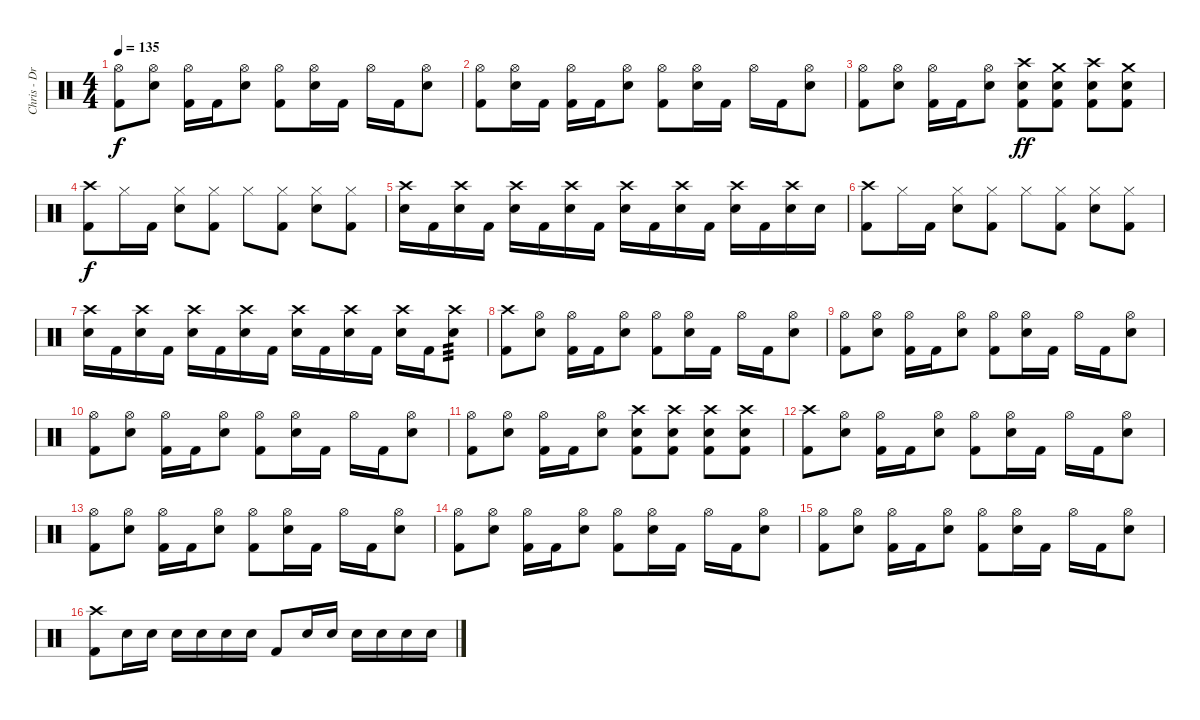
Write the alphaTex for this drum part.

\track ("Chris - Drums" "Chris - Dr") {instrument percussion}
\staff {score}
\articulation defaults
\ts (4 4)
\tempo 135
\clef neutral
\ks c
("Hi-Hat (open)" "Kick (hit) 2").8{dy f} ("Hi-Hat (open)" "Electric Snare (hit)").8 ("Hi-Hat (open)" "Kick (hit) 2").16 "Kick (hit) 2".16 ("Hi-Hat (open)" "Electric Snare (hit)").8 ("Hi-Hat (open)" "Kick (hit) 2").8 ("Hi-Hat (open)" "Electric Snare (hit)").16 "Kick (hit) 2".16 "Hi-Hat (open)".16 "Kick (hit) 2".16 ("Hi-Hat (open)" "Electric Snare (hit)").8 |
("Hi-Hat (open)" "Kick (hit) 2").8 ("Hi-Hat (open)" "Electric Snare (hit)").16 "Kick (hit) 2".16 ("Hi-Hat (open)" "Kick (hit) 2").16 "Kick (hit) 2".16 ("Hi-Hat (open)" "Electric Snare (hit)").8 ("Hi-Hat (open)" "Kick (hit) 2").8 ("Hi-Hat (open)" "Electric Snare (hit)").16 "Kick (hit) 2".16 "Hi-Hat (open)".16 "Kick (hit) 2".16 ("Hi-Hat (open)" "Electric Snare (hit)").8 |
("Hi-Hat (open)" "Kick (hit) 2").8 ("Hi-Hat (open)" "Electric Snare (hit)").8 ("Hi-Hat (open)" "Kick (hit) 2").16 "Kick (hit) 2".16 ("Hi-Hat (open)" "Electric Snare (hit)").8 ("Crash high (hit)" "Electric Snare (hit)" "Kick (hit) 2").8{dy ff} ("Crash medium (hit)" "Electric Snare (hit)" "Kick (hit) 2").8 ("Crash high (hit)" "Electric Snare (hit)" "Kick (hit) 2").8 ("Crash medium (hit)" "Electric Snare (hit)" "Kick (hit) 2").8 |
("Crash high (hit)" "Kick (hit) 2").8{dy f} "Hi-Hat (closed)".16 "Kick (hit) 2".16 ("Hi-Hat (closed)" "Electric Snare (hit)").8 ("Hi-Hat (closed)" "Kick (hit) 2").8 "Hi-Hat (closed)".8 ("Hi-Hat (closed)" "Kick (hit) 2").8 ("Hi-Hat (closed)" "Electric Snare (hit)").8 ("Hi-Hat (closed)" "Kick (hit) 2").8 |
("Crash high (hit)" "Electric Snare (hit)").16 "Kick (hit) 2".16 ("Crash high (hit)" "Electric Snare (hit)").16 "Kick (hit) 2".16 ("Crash high (hit)" "Electric Snare (hit)").16 "Kick (hit) 2".16 ("Crash high (hit)" "Electric Snare (hit)").16 "Kick (hit) 2".16 ("Crash high (hit)" "Electric Snare (hit)").16 "Kick (hit) 2".16 ("Crash high (hit)" "Electric Snare (hit)").16 "Kick (hit) 2".16 ("Crash high (hit)" "Electric Snare (hit)").16 "Kick (hit) 2".16 ("Crash high (hit)" "Electric Snare (hit)").16 "Electric Snare (hit)".16 |
("Crash high (hit)" "Kick (hit) 2").8 "Hi-Hat (closed)".16 "Kick (hit) 2".16 ("Hi-Hat (closed)" "Electric Snare (hit)").8 ("Hi-Hat (closed)" "Kick (hit) 2").8 "Hi-Hat (closed)".8 ("Hi-Hat (closed)" "Kick (hit) 2").8 ("Hi-Hat (closed)" "Electric Snare (hit)").8 ("Hi-Hat (closed)" "Kick (hit) 2").8 |
("Crash high (hit)" "Electric Snare (hit)").16 "Kick (hit) 2".16 ("Crash high (hit)" "Electric Snare (hit)").16 "Kick (hit) 2".16 ("Crash high (hit)" "Electric Snare (hit)").16 "Kick (hit) 2".16 ("Crash high (hit)" "Electric Snare (hit)").16 "Kick (hit) 2".16 ("Crash high (hit)" "Electric Snare (hit)").16 "Kick (hit) 2".16 ("Crash high (hit)" "Electric Snare (hit)").16 "Kick (hit) 2".16 ("Crash high (hit)" "Electric Snare (hit)").16 "Kick (hit) 2".16 ("Crash high (hit)" "Electric Snare (hit)").8{tp 3} |
("Crash high (hit)" "Kick (hit) 2").8 ("Hi-Hat (open)" "Electric Snare (hit)").8 ("Hi-Hat (open)" "Kick (hit) 2").16 "Kick (hit) 2".16 ("Hi-Hat (open)" "Electric Snare (hit)").8 ("Hi-Hat (open)" "Kick (hit) 2").8 ("Hi-Hat (open)" "Electric Snare (hit)").16 "Kick (hit) 2".16 "Hi-Hat (open)".16 "Kick (hit) 2".16 ("Hi-Hat (open)" "Electric Snare (hit)").8 |
("Hi-Hat (open)" "Kick (hit) 2").8 ("Hi-Hat (open)" "Electric Snare (hit)").8 ("Hi-Hat (open)" "Kick (hit) 2").16 "Kick (hit) 2".16 ("Hi-Hat (open)" "Electric Snare (hit)").8 ("Hi-Hat (open)" "Kick (hit) 2").8 ("Hi-Hat (open)" "Electric Snare (hit)").16 "Kick (hit) 2".16 "Hi-Hat (open)".16 "Kick (hit) 2".16 ("Hi-Hat (open)" "Electric Snare (hit)").8 |
("Hi-Hat (open)" "Kick (hit) 2").8 ("Hi-Hat (open)" "Electric Snare (hit)").8 ("Hi-Hat (open)" "Kick (hit) 2").16 "Kick (hit) 2".16 ("Hi-Hat (open)" "Electric Snare (hit)").8 ("Hi-Hat (open)" "Kick (hit) 2").8 ("Hi-Hat (open)" "Electric Snare (hit)").16 "Kick (hit) 2".16 "Hi-Hat (open)".16 "Kick (hit) 2".16 ("Hi-Hat (open)" "Electric Snare (hit)").8 |
("Hi-Hat (open)" "Kick (hit) 2").8 ("Hi-Hat (open)" "Electric Snare (hit)").8 ("Hi-Hat (open)" "Kick (hit) 2").16 "Kick (hit) 2".16 ("Hi-Hat (open)" "Electric Snare (hit)").8 ("Crash high (hit)" "Electric Snare (hit)" "Kick (hit) 2").8 ("Crash high (hit)" "Electric Snare (hit)" "Kick (hit) 2").8 ("Crash high (hit)" "Electric Snare (hit)" "Kick (hit) 2").8 ("Crash high (hit)" "Electric Snare (hit)" "Kick (hit) 2").8 |
("Crash high (hit)" "Kick (hit) 2").8 ("Hi-Hat (open)" "Electric Snare (hit)").8 ("Hi-Hat (open)" "Kick (hit) 2").16 "Kick (hit) 2".16 ("Hi-Hat (open)" "Electric Snare (hit)").8 ("Hi-Hat (open)" "Kick (hit) 2").8 ("Hi-Hat (open)" "Electric Snare (hit)").16 "Kick (hit) 2".16 "Hi-Hat (open)".16 "Kick (hit) 2".16 ("Hi-Hat (open)" "Electric Snare (hit)").8 |
("Hi-Hat (open)" "Kick (hit) 2").8 ("Hi-Hat (open)" "Electric Snare (hit)").8 ("Hi-Hat (open)" "Kick (hit) 2").16 "Kick (hit) 2".16 ("Hi-Hat (open)" "Electric Snare (hit)").8 ("Hi-Hat (open)" "Kick (hit) 2").8 ("Hi-Hat (open)" "Electric Snare (hit)").16 "Kick (hit) 2".16 "Hi-Hat (open)".16 "Kick (hit) 2".16 ("Hi-Hat (open)" "Electric Snare (hit)").8 |
("Hi-Hat (open)" "Kick (hit) 2").8 ("Hi-Hat (open)" "Electric Snare (hit)").8 ("Hi-Hat (open)" "Kick (hit) 2").16 "Kick (hit) 2".16 ("Hi-Hat (open)" "Electric Snare (hit)").8 ("Hi-Hat (open)" "Kick (hit) 2").8 ("Hi-Hat (open)" "Electric Snare (hit)").16 "Kick (hit) 2".16 "Hi-Hat (open)".16 "Kick (hit) 2".16 ("Hi-Hat (open)" "Electric Snare (hit)").8 |
("Hi-Hat (open)" "Kick (hit) 2").8 ("Hi-Hat (open)" "Electric Snare (hit)").8 ("Hi-Hat (open)" "Kick (hit) 2").16 "Kick (hit) 2".16 ("Hi-Hat (open)" "Electric Snare (hit)").8 ("Hi-Hat (open)" "Kick (hit) 2").8 ("Hi-Hat (open)" "Electric Snare (hit)").16 "Kick (hit) 2".16 "Hi-Hat (open)".16 "Kick (hit) 2".16 ("Hi-Hat (open)" "Electric Snare (hit)").8 |
("Crash high (hit)" "Kick (hit) 2").8 "Electric Snare (hit)".16 "Electric Snare (hit)".16 "Electric Snare (hit)".16 "Electric Snare (hit)".16 "Electric Snare (hit)".16 "Electric Snare (hit)".16 "Kick (hit) 2".8 "Electric Snare (hit)".16 "Electric Snare (hit)".16 "Electric Snare (hit)".16 "Electric Snare (hit)".16 "Electric Snare (hit)".16 "Electric Snare (hit)".16
